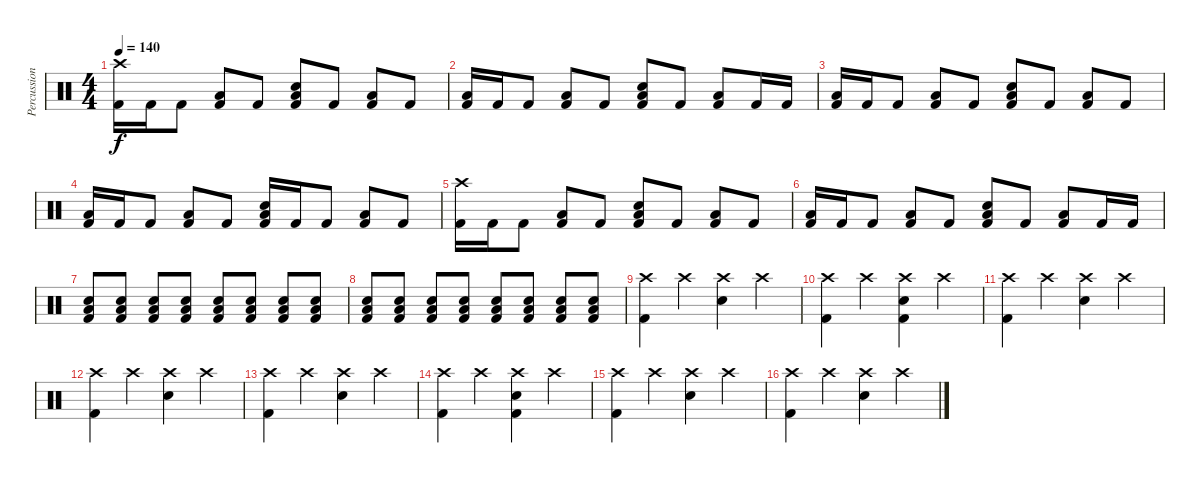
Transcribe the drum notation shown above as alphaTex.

\track ("Percussion" "Percussion") {instrument percussion}
\staff {score}
\articulation defaults
\ts (4 4)
\tempo 140
\clef neutral
\ks c
("Crash high (hit)" "Kick (hit) 2").16{dy f} "Kick (hit) 2".16 "Kick (hit) 2".8 ("Low Floor Tom (hit)" "Kick (hit) 2").8 "Kick (hit) 2".8 ("Low Floor Tom (hit)" "Electric Snare (hit)" "Kick (hit) 2").8 "Kick (hit) 2".8 ("Low Floor Tom (hit)" "Kick (hit) 2").8 "Kick (hit) 2".8 |
("Low Floor Tom (hit)" "Kick (hit) 2").16 "Kick (hit) 2".16 "Kick (hit) 2".8 ("Low Floor Tom (hit)" "Kick (hit) 2").8 "Kick (hit) 2".8 ("Low Floor Tom (hit)" "Electric Snare (hit)" "Kick (hit) 2").8 "Kick (hit) 2".8 ("Low Floor Tom (hit)" "Kick (hit) 2").8 "Kick (hit) 2".16 "Kick (hit) 2".16 |
("Low Floor Tom (hit)" "Kick (hit) 2").16 "Kick (hit) 2".16 "Kick (hit) 2".8 ("Low Floor Tom (hit)" "Kick (hit) 2").8 "Kick (hit) 2".8 ("Low Floor Tom (hit)" "Electric Snare (hit)" "Kick (hit) 2").8 "Kick (hit) 2".8 ("Low Floor Tom (hit)" "Kick (hit) 2").8 "Kick (hit) 2".8 |
("Low Floor Tom (hit)" "Kick (hit) 2").16 "Kick (hit) 2".16 "Kick (hit) 2".8 ("Low Floor Tom (hit)" "Kick (hit) 2").8 "Kick (hit) 2".8 ("Low Floor Tom (hit)" "Electric Snare (hit)" "Kick (hit) 2").16 "Kick (hit) 2".16 "Kick (hit) 2".8 ("Low Floor Tom (hit)" "Kick (hit) 2").8 "Kick (hit) 2".8 |
("Crash high (hit)" "Kick (hit) 2").16 "Kick (hit) 2".16 "Kick (hit) 2".8 ("Low Floor Tom (hit)" "Kick (hit) 2").8 "Kick (hit) 2".8 ("Low Floor Tom (hit)" "Electric Snare (hit)" "Kick (hit) 2").8 "Kick (hit) 2".8 ("Low Floor Tom (hit)" "Kick (hit) 2").8 "Kick (hit) 2".8 |
("Low Floor Tom (hit)" "Kick (hit) 2").16 "Kick (hit) 2".16 "Kick (hit) 2".8 ("Low Floor Tom (hit)" "Kick (hit) 2").8 "Kick (hit) 2".8 ("Low Floor Tom (hit)" "Electric Snare (hit)" "Kick (hit) 2").8 "Kick (hit) 2".8 ("Low Floor Tom (hit)" "Kick (hit) 2").8 "Kick (hit) 2".16 "Kick (hit) 2".16 |
("Electric Snare (hit)" "Low Floor Tom (hit)" "Kick (hit) 2").8 ("Electric Snare (hit)" "Low Floor Tom (hit)" "Kick (hit) 2").8 ("Electric Snare (hit)" "Low Floor Tom (hit)" "Kick (hit) 2").8 ("Electric Snare (hit)" "Low Floor Tom (hit)" "Kick (hit) 2").8 ("Electric Snare (hit)" "Low Floor Tom (hit)" "Kick (hit) 2").8 ("Electric Snare (hit)" "Low Floor Tom (hit)" "Kick (hit) 2").8 ("Electric Snare (hit)" "Low Floor Tom (hit)" "Kick (hit) 2").8 ("Electric Snare (hit)" "Low Floor Tom (hit)" "Kick (hit) 2").8 |
("Electric Snare (hit)" "Low Floor Tom (hit)" "Kick (hit) 2").8 ("Electric Snare (hit)" "Low Floor Tom (hit)" "Kick (hit) 2").8 ("Electric Snare (hit)" "Low Floor Tom (hit)" "Kick (hit) 2").8 ("Electric Snare (hit)" "Low Floor Tom (hit)" "Kick (hit) 2").8 ("Electric Snare (hit)" "Low Floor Tom (hit)" "Kick (hit) 2").8 ("Electric Snare (hit)" "Low Floor Tom (hit)" "Kick (hit) 2").8 ("Electric Snare (hit)" "Low Floor Tom (hit)" "Kick (hit) 2").8 ("Electric Snare (hit)" "Low Floor Tom (hit)" "Kick (hit) 2").8 |
("Crash high (hit)" "Kick (hit) 2").4 "Crash high (hit)".4 ("Crash high (hit)" "Electric Snare (hit)").4 "Crash high (hit)".4 |
("Crash high (hit)" "Kick (hit) 2").4 "Crash high (hit)".4 ("Crash high (hit)" "Electric Snare (hit)" "Kick (hit) 2").4 "Crash high (hit)".4 |
("Crash high (hit)" "Kick (hit) 2").4 "Crash high (hit)".4 ("Crash high (hit)" "Electric Snare (hit)").4 "Crash high (hit)".4 |
("Crash high (hit)" "Kick (hit) 2").4 "Crash high (hit)".4 ("Crash high (hit)" "Electric Snare (hit)").4 "Crash high (hit)".4 |
("Crash high (hit)" "Kick (hit) 2").4 "Crash high (hit)".4 ("Crash high (hit)" "Electric Snare (hit)").4 "Crash high (hit)".4 |
("Crash high (hit)" "Kick (hit) 2").4 "Crash high (hit)".4 ("Crash high (hit)" "Electric Snare (hit)" "Kick (hit) 2").4 "Crash high (hit)".4 |
("Crash high (hit)" "Kick (hit) 2").4 "Crash high (hit)".4 ("Crash high (hit)" "Electric Snare (hit)").4 "Crash high (hit)".4 |
("Crash high (hit)" "Kick (hit) 2").4 "Crash high (hit)".4 ("Crash high (hit)" "Electric Snare (hit)").4 "Crash high (hit)".4
